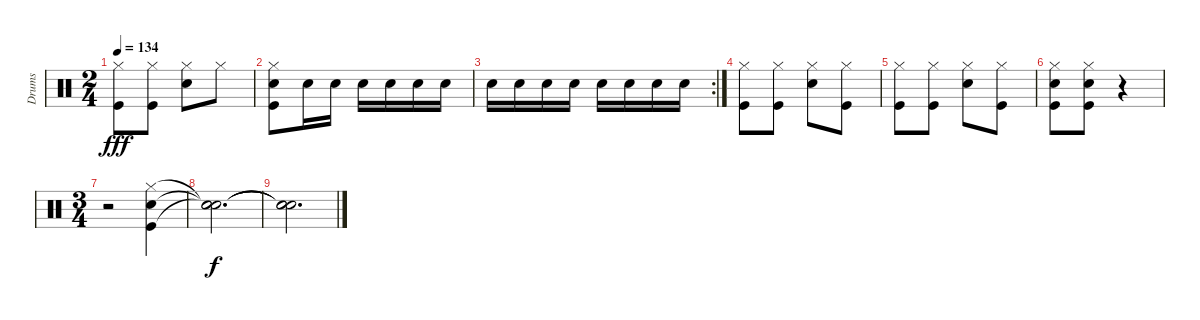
\track ("Drums" "Drums") {instrument percussion}
\staff {score}
\articulation defaults
\ts (2 4)
\tempo 134
\clef neutral
\ks c
("Hi-Hat (closed)" "Kick (hit)").8{dy fff} ("Hi-Hat (closed)" "Kick (hit)").8 ("Hi-Hat (closed)" "Electric Snare (hit)").8 "Hi-Hat (closed)".8 |
("Hi-Hat (closed)" "Electric Snare (hit)" "Kick (hit)").8 "Electric Snare (hit)".16 "Electric Snare (hit)".16 "Electric Snare (hit)".16 "Electric Snare (hit)".16 "Electric Snare (hit)".16 "Electric Snare (hit)".16 |
\rc 2 "Electric Snare (hit)".16 "Electric Snare (hit)".16 "Electric Snare (hit)".16 "Electric Snare (hit)".16 "Electric Snare (hit)".16 "Electric Snare (hit)".16 "Electric Snare (hit)".16 "Electric Snare (hit)".16
|
("Hi-Hat (closed)" "Kick (hit)").8 ("Hi-Hat (closed)" "Kick (hit)").8 ("Hi-Hat (closed)" "Electric Snare (hit)").8 ("Hi-Hat (closed)" "Kick (hit)").8 |
("Hi-Hat (closed)" "Kick (hit)").8 ("Hi-Hat (closed)" "Kick (hit)").8 ("Hi-Hat (closed)" "Electric Snare (hit)").8 ("Hi-Hat (closed)" "Kick (hit)").8 |
("Hi-Hat (closed)" "Electric Snare (hit)" "Kick (hit)").8 ("Hi-Hat (closed)" "Electric Snare (hit)" "Kick (hit)").8 r.4 |
\ts (3 4)
r.2 ("Hi-Hat (closed)" "Electric Snare (hit)" "Kick (hit)").4 |
("Snare (hit)"{t} "Snare (hit)"{t} "Snare (hit)"{t}).2{d dy f} |
("Snare (hit)"{t} "Snare (hit)"{t} "Snare (hit)"{t}).2{d}
